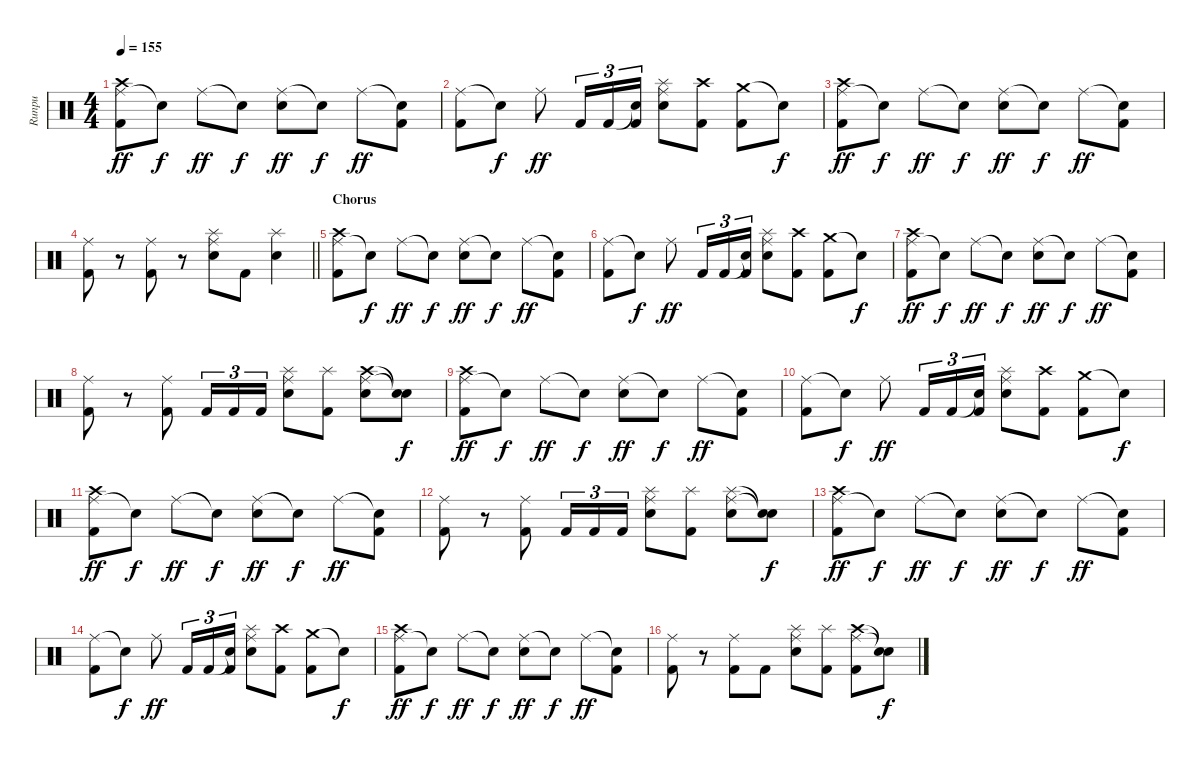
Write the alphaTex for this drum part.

\track ("Runpu" "Runpu") {instrument percussion}
\staff {score}
\articulation defaults
\ts (4 4)
\tempo 155
\clef neutral
\ks c
("Ride (middle)" "Crash high (hit)" "Kick (hit) 2").8{dy ff} "Snare (hit)"{t}.8{dy f} "Ride (middle)".8{dy ff} "Snare (hit)"{t}.8{dy f} ("Ride (middle)" "Snare (hit) 2").8{dy ff} "Snare (hit)"{t}.8{dy f} "Ride (middle)".8{dy ff} ("Snare (hit)"{t} "Kick (hit) 2").8 |
("Ride (middle)" "Kick (hit) 2").8 "Snare (hit)"{t}.8{dy f} "Ride (middle)".8{dy ff} "Kick (hit) 2".16{tu (3 2)} "Kick (hit) 2".16{tu (3 2)} ("Snare (hit)"{t} "Kick (hit) 2").16{tu (3 2)} ("Ride (middle)" "Splash (hit)" "Snare (hit) 2").8 ("Crash high (hit)" "Kick (hit) 2").8 ("Crash medium (hit)" "Kick (hit) 2").8 "Snare (hit)"{t}.8{dy f} |
("Ride (middle)" "Crash high (hit)" "Kick (hit) 2").8{dy ff} "Snare (hit)"{t}.8{dy f} "Ride (middle)".8{dy ff} "Snare (hit)"{t}.8{dy f} ("Ride (middle)" "Snare (hit) 2").8{dy ff} "Snare (hit)"{t}.8{dy f} "Ride (middle)".8{dy ff} ("Snare (hit)"{t} "Kick (hit) 2").8 |
\barLineRight lightlight
("Ride (middle)" "Kick (hit) 2").8 r.8 ("Ride (middle)" "Kick (hit) 2").8 r.8 ("Ride (middle)" "Splash (hit)" "Snare (hit) 2").8 "Kick (hit) 2".8 ("Splash (hit)" "Snare (hit) 2").4 |
\section ("" "Chorus")
("Ride (middle)" "Crash high (hit)" "Kick (hit) 2").8 "Snare (hit)"{t}.8{dy f} "Ride (middle)".8{dy ff} "Snare (hit)"{t}.8{dy f} ("Ride (middle)" "Snare (hit) 2").8{dy ff} "Snare (hit)"{t}.8{dy f} "Ride (middle)".8{dy ff} ("Snare (hit)"{t} "Kick (hit) 2").8 |
("Ride (middle)" "Kick (hit) 2").8 "Snare (hit)"{t}.8{dy f} "Ride (middle)".8{dy ff} "Kick (hit) 2".16{tu (3 2)} "Kick (hit) 2".16{tu (3 2)} ("Snare (hit)"{t} "Kick (hit) 2").16{tu (3 2)} ("Ride (middle)" "Splash (hit)" "Snare (hit) 2").8 ("Crash high (hit)" "Kick (hit) 2").8 ("Crash medium (hit)" "Kick (hit) 2").8 "Snare (hit)"{t}.8{dy f} |
("Ride (middle)" "Crash high (hit)" "Kick (hit) 2").8{dy ff} "Snare (hit)"{t}.8{dy f} "Ride (middle)".8{dy ff} "Snare (hit)"{t}.8{dy f} ("Ride (middle)" "Snare (hit) 2").8{dy ff} "Snare (hit)"{t}.8{dy f} "Ride (middle)".8{dy ff} ("Snare (hit)"{t} "Kick (hit) 2").8 |
("Ride (middle)" "Kick (hit) 2").8 r.8 ("Ride (middle)" "Kick (hit) 2").8 "Kick (hit) 2".16{tu (3 2)} "Kick (hit) 2".16{tu (3 2)} "Kick (hit) 2".16{tu (3 2)} ("Ride (middle)" "Splash (hit)" "Snare (hit) 2").8 ("Splash (hit)" "Kick (hit) 2").8 ("Ride (middle)" "Crash high (hit)" "Snare (hit) 2").8 ("Snare (hit)"{t} "Snare (hit)"{t}).8{dy f} |
("Ride (middle)" "Crash high (hit)" "Kick (hit) 2").8{dy ff} "Snare (hit)"{t}.8{dy f} "Ride (middle)".8{dy ff} "Snare (hit)"{t}.8{dy f} ("Ride (middle)" "Snare (hit) 2").8{dy ff} "Snare (hit)"{t}.8{dy f} "Ride (middle)".8{dy ff} ("Snare (hit)"{t} "Kick (hit) 2").8 |
("Ride (middle)" "Kick (hit) 2").8 "Snare (hit)"{t}.8{dy f} "Ride (middle)".8{dy ff} "Kick (hit) 2".16{tu (3 2)} "Kick (hit) 2".16{tu (3 2)} ("Snare (hit)"{t} "Kick (hit) 2").16{tu (3 2)} ("Ride (middle)" "Splash (hit)" "Snare (hit) 2").8 ("Crash high (hit)" "Kick (hit) 2").8 ("Crash medium (hit)" "Kick (hit) 2").8 "Snare (hit)"{t}.8{dy f} |
("Ride (middle)" "Crash high (hit)" "Kick (hit) 2").8{dy ff} "Snare (hit)"{t}.8{dy f} "Ride (middle)".8{dy ff} "Snare (hit)"{t}.8{dy f} ("Ride (middle)" "Snare (hit) 2").8{dy ff} "Snare (hit)"{t}.8{dy f} "Ride (middle)".8{dy ff} ("Snare (hit)"{t} "Kick (hit) 2").8 |
("Ride (middle)" "Kick (hit) 2").8 r.8 ("Ride (middle)" "Kick (hit) 2").8 "Kick (hit) 2".16{tu (3 2)} "Kick (hit) 2".16{tu (3 2)} "Kick (hit) 2".16{tu (3 2)} ("Ride (middle)" "Splash (hit)" "Snare (hit) 2").8 ("Splash (hit)" "Kick (hit) 2").8 ("Ride (middle)" "Splash (hit)" "Snare (hit) 2").8 ("Snare (hit)"{t} "Snare (hit)"{t}).8{dy f} |
("Ride (middle)" "Crash high (hit)" "Kick (hit) 2").8{dy ff} "Snare (hit)"{t}.8{dy f} "Ride (middle)".8{dy ff} "Snare (hit)"{t}.8{dy f} ("Ride (middle)" "Snare (hit) 2").8{dy ff} "Snare (hit)"{t}.8{dy f} "Ride (middle)".8{dy ff} ("Snare (hit)"{t} "Kick (hit) 2").8 |
("Ride (middle)" "Kick (hit) 2").8 "Snare (hit)"{t}.8{dy f} "Ride (middle)".8{dy ff} "Kick (hit) 2".16{tu (3 2)} "Kick (hit) 2".16{tu (3 2)} ("Snare (hit)"{t} "Kick (hit) 2").16{tu (3 2)} ("Ride (middle)" "Splash (hit)" "Snare (hit) 2").8 ("Crash high (hit)" "Kick (hit) 2").8 ("Crash medium (hit)" "Kick (hit) 2").8 "Snare (hit)"{t}.8{dy f} |
("Ride (middle)" "Crash high (hit)" "Kick (hit) 2").8{dy ff} "Snare (hit)"{t}.8{dy f} "Ride (middle)".8{dy ff} "Snare (hit)"{t}.8{dy f} ("Ride (middle)" "Snare (hit) 2").8{dy ff} "Snare (hit)"{t}.8{dy f} "Ride (middle)".8{dy ff} ("Snare (hit)"{t} "Kick (hit) 2").8 |
("Ride (middle)" "Kick (hit) 2").8 r.8 ("Ride (middle)" "Kick (hit) 2").8 "Kick (hit) 2".8 ("Ride (middle)" "Splash (hit)" "Snare (hit) 2").8 ("Splash (hit)" "Kick (hit) 2").8 ("Ride (middle)" "Crash high (hit)" "Kick (hit) 2").8 ("Snare (hit)"{t} "Snare (hit)"{t}).8{dy f}
